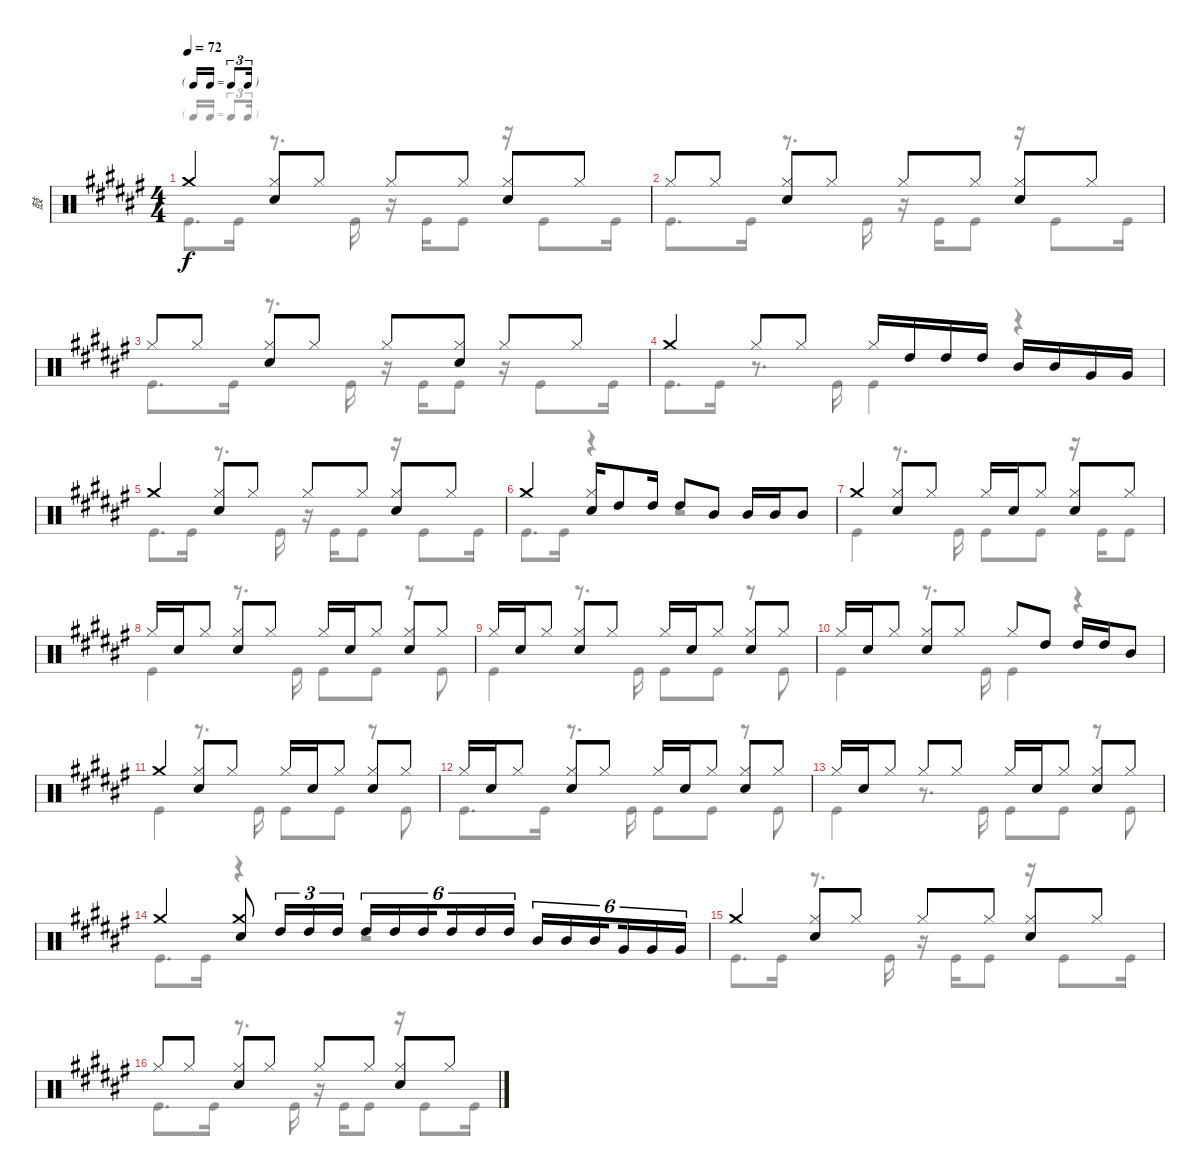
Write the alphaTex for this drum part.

\track ("鼓" "鼓") {instrument percussion}
\staff {score}
\articulation defaults
\voice
\ts (4 4)
\tf triplet16th
\tempo 72
\clef neutral
\ks f# "Crash medium (hit)".4{dy f}
("Hi-Hat (closed)" "Snare (hit) 2").8 "Hi-Hat (closed)".8 "Hi-Hat (closed)".8 "Hi-Hat (closed)".8 ("Hi-Hat (closed)" "Snare (hit) 2").8 "Hi-Hat (closed)".8 |
"Hi-Hat (closed)".8 "Hi-Hat (closed)".8 ("Hi-Hat (closed)" "Snare (hit) 2").8 "Hi-Hat (closed)".8 "Hi-Hat (closed)".8 "Hi-Hat (closed)".8 ("Hi-Hat (closed)" "Snare (hit) 2").8 "Hi-Hat (closed)".8 |
"Hi-Hat (closed)".8 "Hi-Hat (closed)".8 ("Hi-Hat (closed)" "Snare (hit) 2").8 "Hi-Hat (closed)".8 "Hi-Hat (closed)".8 ("Hi-Hat (closed)" "Snare (hit) 2").8 "Hi-Hat (closed)".8 "Hi-Hat (closed)".8 |
"Crash medium (hit)".4 "Hi-Hat (closed)".8 "Hi-Hat (closed)".8 "Hi-Hat (closed)".16 "High Tom (hit)".16 "High Tom (hit)".16 "High Tom (hit)".16 "Mid Tom (hit)".16 "Mid Tom (hit)".16 "Very Low Tom (hit)".16 "Very Low Tom (hit)".16 |
"Crash medium (hit)".4 ("Hi-Hat (closed)" "Snare (hit) 2").8 "Hi-Hat (closed)".8 "Hi-Hat (closed)".8 "Hi-Hat (closed)".8 ("Hi-Hat (closed)" "Snare (hit) 2").8 "Hi-Hat (closed)".8 |
"Crash medium (hit)".4 ("Hi-Hat (closed)" "Snare (hit) 2").16 "High Tom (hit)".8 "High Tom (hit)".16 "High Tom (hit)".8 "Mid Tom (hit)".8 "Mid Tom (hit)".16 "Mid Tom (hit)".16 "Mid Tom (hit)".8 |
"Crash medium (hit)".4 ("Hi-Hat (closed)" "Snare (hit) 2").8 "Hi-Hat (closed)".8 "Hi-Hat (closed)".16 "Snare (hit) 2".16 "Hi-Hat (closed)".8 ("Hi-Hat (closed)" "Snare (hit) 2").8 "Hi-Hat (closed)".8 |
"Hi-Hat (closed)".16 "Snare (hit) 2".16 "Hi-Hat (closed)".8 ("Hi-Hat (closed)" "Snare (hit) 2").8 "Hi-Hat (closed)".8 "Hi-Hat (closed)".16 "Snare (hit) 2".16 "Hi-Hat (closed)".8 ("Hi-Hat (closed)" "Snare (hit) 2").8 "Hi-Hat (closed)".8 |
"Hi-Hat (closed)".16 "Snare (hit) 2".16 "Hi-Hat (closed)".8 ("Hi-Hat (closed)" "Snare (hit) 2").8 "Hi-Hat (closed)".8 "Hi-Hat (closed)".16 "Snare (hit) 2".16 "Hi-Hat (closed)".8 ("Hi-Hat (closed)" "Snare (hit) 2").8 "Hi-Hat (closed)".8 |
"Hi-Hat (closed)".16 "Snare (hit) 2".16 "Hi-Hat (closed)".8 ("Hi-Hat (closed)" "Snare (hit) 2").8 "Hi-Hat (closed)".8 "Hi-Hat (closed)".8 "High Tom (hit)".8 "High Tom (hit)".16 "High Tom (hit)".16 "Mid Tom (hit)".8 |
"Crash medium (hit)".4 ("Hi-Hat (closed)" "Snare (hit) 2").8 "Hi-Hat (closed)".8 "Hi-Hat (closed)".16 "Snare (hit) 2".16 "Hi-Hat (closed)".8 ("Hi-Hat (closed)" "Snare (hit) 2").8 "Hi-Hat (closed)".8 |
"Hi-Hat (closed)".16 "Snare (hit) 2".16 "Hi-Hat (closed)".8 ("Hi-Hat (closed)" "Snare (hit) 2").8 "Hi-Hat (closed)".8 "Hi-Hat (closed)".16 "Snare (hit) 2".16 "Hi-Hat (closed)".8 ("Hi-Hat (closed)" "Snare (hit) 2").8 "Hi-Hat (closed)".8 |
"Hi-Hat (closed)".16 "Snare (hit) 2".16 "Hi-Hat (closed)".8 "Hi-Hat (closed)".8 "Hi-Hat (closed)".8 "Hi-Hat (closed)".16 "Snare (hit) 2".16 "Hi-Hat (closed)".8 ("Hi-Hat (closed)" "Snare (hit) 2").8 "Hi-Hat (closed)".8 |
"Crash medium (hit)".4 ("Crash medium (hit)" "Snare (hit) 2").8 "High Tom (hit)".16{tu (3 2)} "High Tom (hit)".16{tu (3 2)} "High Tom (hit)".16{tu (3 2)} "High Tom (hit)".16{tu (6 4)} "High Tom (hit)".16{tu (6 4)} "High Tom (hit)".16{tu (6 4) beam splitsecondary} "High Tom (hit)".16{tu (6 4)} "High Tom (hit)".16{tu (6 4)} "High Tom (hit)".16{tu (6 4)} "Mid Tom (hit)".16{tu (6 4)} "Mid Tom (hit)".16{tu (6 4)} "Mid Tom (hit)".16{tu (6 4) beam splitsecondary} "Very Low Tom (hit)".16{tu (6 4)} "Very Low Tom (hit)".16{tu (6 4)} "Very Low Tom (hit)".16{tu (6 4)} |
"Crash medium (hit)".4 ("Hi-Hat (closed)" "Snare (hit) 2").8 "Hi-Hat (closed)".8 "Hi-Hat (closed)".8 "Hi-Hat (closed)".8 ("Hi-Hat (closed)" "Snare (hit) 2").8 "Hi-Hat (closed)".8 |
"Hi-Hat (closed)".8 "Hi-Hat (closed)".8 ("Hi-Hat (closed)" "Snare (hit) 2").8 "Hi-Hat (closed)".8 "Hi-Hat (closed)".8 "Hi-Hat (closed)".8 ("Hi-Hat (closed)" "Snare (hit) 2").8 "Hi-Hat (closed)".8
\voice
\clef neutral
\ottava regular
\simile none
\ks f# "Kick (hit)".8{d dy f} "Kick (hit)".16
r.8{d} "Kick (hit)".16 r.16 "Kick (hit)".16 "Kick (hit)".8 r.16 "Kick (hit)".8 "Kick (hit)".16 |
"Kick (hit)".8{d} "Kick (hit)".16 r.8{d} "Kick (hit)".16 r.16 "Kick (hit)".16 "Kick (hit)".8 r.16 "Kick (hit)".8 "Kick (hit)".16 |
"Kick (hit)".8{d} "Kick (hit)".16 r.8{d} "Kick (hit)".16 r.16 "Kick (hit)".16 "Kick (hit)".8 r.16 "Kick (hit)".8 "Kick (hit)".16 |
"Kick (hit)".8{d} "Kick (hit)".16 r.8{d} "Kick (hit)".16 "Kick (hit)".4 r.4 |
"Kick (hit)".8{d} "Kick (hit)".16 r.8{d} "Kick (hit)".16 r.16 "Kick (hit)".16 "Kick (hit)".8 r.16 "Kick (hit)".8 "Kick (hit)".16 |
"Kick (hit)".8{d} "Kick (hit)".16 r.4 r.2 |
"Kick (hit)".4 r.8{d} "Kick (hit)".16 "Kick (hit)".8 "Kick (hit)".8 r.16 "Kick (hit)".16 "Kick (hit)".8 |
"Kick (hit)".4 r.8{d} "Kick (hit)".16 "Kick (hit)".8 "Kick (hit)".8 r.8 "Kick (hit)".8 |
"Kick (hit)".4 r.8{d} "Kick (hit)".16 "Kick (hit)".8 "Kick (hit)".8 r.8 "Kick (hit)".8 |
"Kick (hit)".4 r.8{d} "Kick (hit)".16 "Kick (hit)".4 r.4 |
"Kick (hit)".4 r.8{d} "Kick (hit)".16 "Kick (hit)".8 "Kick (hit)".8 r.8 "Kick (hit)".8 |
"Kick (hit)".8{d} "Kick (hit)".16 r.8{d} "Kick (hit)".16 "Kick (hit)".8 "Kick (hit)".8 r.8 "Kick (hit)".8 |
"Kick (hit)".4 r.8{d} "Kick (hit)".16 "Kick (hit)".8 "Kick (hit)".8 r.8 "Kick (hit)".8 |
"Kick (hit)".8{d} "Kick (hit)".16 r.4 r.2 |
"Kick (hit)".8{d} "Kick (hit)".16 r.8{d} "Kick (hit)".16 r.16 "Kick (hit)".16 "Kick (hit)".8 r.16 "Kick (hit)".8 "Kick (hit)".16 |
"Kick (hit)".8{d} "Kick (hit)".16 r.8{d} "Kick (hit)".16 r.16 "Kick (hit)".16 "Kick (hit)".8 r.16 "Kick (hit)".8 "Kick (hit)".16
